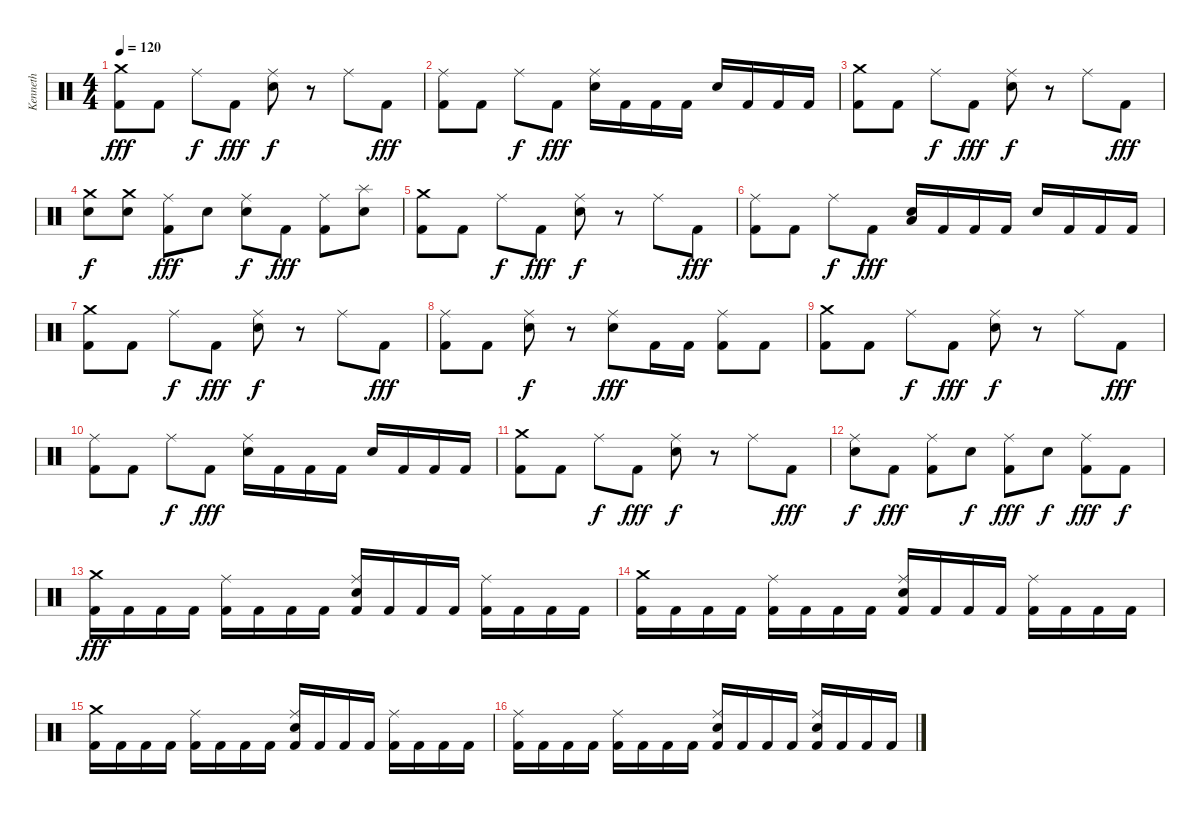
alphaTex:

\track ("Kenneth" "Kenneth") {instrument percussion}
\staff {score}
\articulation defaults
\ts (4 4)
\tempo 120
\clef neutral
\ks c
("Crash medium (hit)" "Kick (hit) 2").8{dy fff} "Kick (hit) 2".8 "Ride (middle)".8{dy f} "Kick (hit) 2".8{dy fff} ("Ride (middle)" "Electric Snare (hit)").8{dy f} r.8 "Ride (middle)".8 "Kick (hit) 2".8{dy fff} |
("Ride (middle)" "Kick (hit) 2").8 "Kick (hit) 2".8 "Ride (middle)".8{dy f} "Kick (hit) 2".8{dy fff} ("Ride (middle)" "Electric Snare (hit)").16 "Kick (hit) 2".16 "Kick (hit) 2".16 "Kick (hit) 2".16 "Electric Snare (hit)".16 "Kick (hit) 2".16 "Kick (hit) 2".16 "Kick (hit) 2".16 |
("Crash medium (hit)" "Kick (hit) 2").8 "Kick (hit) 2".8 "Ride (middle)".8{dy f} "Kick (hit) 2".8{dy fff} ("Ride (middle)" "Electric Snare (hit)").8{dy f} r.8 "Ride (middle)".8 "Kick (hit) 2".8{dy fff} |
("Crash medium (hit)" "Electric Snare (hit)").8{dy f} ("Crash medium (hit)" "Electric Snare (hit)").8 ("Ride (middle)" "Kick (hit) 2").8{dy fff} "Electric Snare (hit)".8 ("Ride (middle)" "Electric Snare (hit)").8{dy f} "Kick (hit) 2".8{dy fff} ("Ride (middle)" "Kick (hit) 2").8 ("Splash (hit)" "Electric Snare (hit)").8 |
("Crash medium (hit)" "Kick (hit) 2").8 "Kick (hit) 2".8 "Ride (middle)".8{dy f} "Kick (hit) 2".8{dy fff} ("Ride (middle)" "Electric Snare (hit)").8{dy f} r.8 "Ride (middle)".8 "Kick (hit) 2".8{dy fff} |
("Ride (middle)" "Kick (hit) 2").8 "Kick (hit) 2".8 "Ride (middle)".8{dy f} "Kick (hit) 2".8{dy fff} ("Low Tom (hit)" "Electric Snare (hit)").16 "Kick (hit) 2".16 "Kick (hit) 2".16 "Kick (hit) 2".16 "Electric Snare (hit)".16 "Kick (hit) 2".16 "Kick (hit) 2".16 "Kick (hit) 2".16 |
("Crash medium (hit)" "Kick (hit) 2").8 "Kick (hit) 2".8 "Ride (middle)".8{dy f} "Kick (hit) 2".8{dy fff} ("Ride (middle)" "Electric Snare (hit)").8{dy f} r.8 "Ride (middle)".8 "Kick (hit) 2".8{dy fff} |
("Ride (middle)" "Kick (hit) 2").8 "Kick (hit) 2".8 ("Ride (middle)" "Electric Snare (hit)").8{dy f} r.8 ("Ride (middle)" "Electric Snare (hit)").8{dy fff} "Kick (hit) 2".16 "Kick (hit) 2".16 ("Ride (middle)" "Kick (hit) 2").8 "Kick (hit) 2".8 |
("Crash medium (hit)" "Kick (hit) 2").8 "Kick (hit) 2".8 "Ride (middle)".8{dy f} "Kick (hit) 2".8{dy fff} ("Ride (middle)" "Electric Snare (hit)").8{dy f} r.8 "Ride (middle)".8 "Kick (hit) 2".8{dy fff} |
("Ride (middle)" "Kick (hit) 2").8 "Kick (hit) 2".8 "Ride (middle)".8{dy f} "Kick (hit) 2".8{dy fff} ("Ride (middle)" "Electric Snare (hit)").16 "Kick (hit) 2".16 "Kick (hit) 2".16 "Kick (hit) 2".16 "Electric Snare (hit)".16 "Kick (hit) 2".16 "Kick (hit) 2".16 "Kick (hit) 2".16 |
("Crash medium (hit)" "Kick (hit) 2").8 "Kick (hit) 2".8 "Ride (middle)".8{dy f} "Kick (hit) 2".8{dy fff} ("Ride (middle)" "Electric Snare (hit)").8{dy f} r.8 "Ride (middle)".8 "Kick (hit) 2".8{dy fff} |
("Ride (middle)" "Electric Snare (hit)").8{dy f} "Kick (hit) 2".8{dy fff} ("Ride (middle)" "Kick (hit) 2").8 "Electric Snare (hit)".8{dy f} ("Ride (middle)" "Kick (hit) 2").8{dy fff} "Electric Snare (hit)".8{dy f} ("Ride (middle)" "Kick (hit) 2").8{dy fff} "Kick (hit) 2".8{dy f} |
("Crash medium (hit)" "Kick (hit) 2").16{dy fff} "Kick (hit) 2".16 "Kick (hit) 2".16 "Kick (hit) 2".16 ("Ride (middle)" "Kick (hit) 2").16 "Kick (hit) 2".16 "Kick (hit) 2".16 "Kick (hit) 2".16 ("Ride (middle)" "Electric Snare (hit)" "Kick (hit) 2").16 "Kick (hit) 2".16 "Kick (hit) 2".16 "Kick (hit) 2".16 ("Ride (middle)" "Kick (hit) 2").16 "Kick (hit) 2".16 "Kick (hit) 2".16 "Kick (hit) 2".16 |
("Crash medium (hit)" "Kick (hit) 2").16 "Kick (hit) 2".16 "Kick (hit) 2".16 "Kick (hit) 2".16 ("Ride (middle)" "Kick (hit) 2").16 "Kick (hit) 2".16 "Kick (hit) 2".16 "Kick (hit) 2".16 ("Ride (middle)" "Electric Snare (hit)" "Kick (hit) 2").16 "Kick (hit) 2".16 "Kick (hit) 2".16 "Kick (hit) 2".16 ("Ride (middle)" "Kick (hit) 2").16 "Kick (hit) 2".16 "Kick (hit) 2".16 "Kick (hit) 2".16 |
("Crash medium (hit)" "Kick (hit) 2").16 "Kick (hit) 2".16 "Kick (hit) 2".16 "Kick (hit) 2".16 ("Ride (middle)" "Kick (hit) 2").16 "Kick (hit) 2".16 "Kick (hit) 2".16 "Kick (hit) 2".16 ("Ride (middle)" "Electric Snare (hit)" "Kick (hit) 2").16 "Kick (hit) 2".16 "Kick (hit) 2".16 "Kick (hit) 2".16 ("Ride (middle)" "Kick (hit) 2").16 "Kick (hit) 2".16 "Kick (hit) 2".16 "Kick (hit) 2".16 |
("Ride (middle)" "Kick (hit) 2").16 "Kick (hit) 2".16 "Kick (hit) 2".16 "Kick (hit) 2".16 ("Ride (middle)" "Kick (hit) 2").16 "Kick (hit) 2".16 "Kick (hit) 2".16 "Kick (hit) 2".16 ("Ride (middle)" "Electric Snare (hit)" "Kick (hit) 2").16 "Kick (hit) 2".16 "Kick (hit) 2".16 "Kick (hit) 2".16 ("Ride (middle)" "Electric Snare (hit)" "Kick (hit) 2").16 "Kick (hit) 2".16 "Kick (hit) 2".16 "Kick (hit) 2".16
